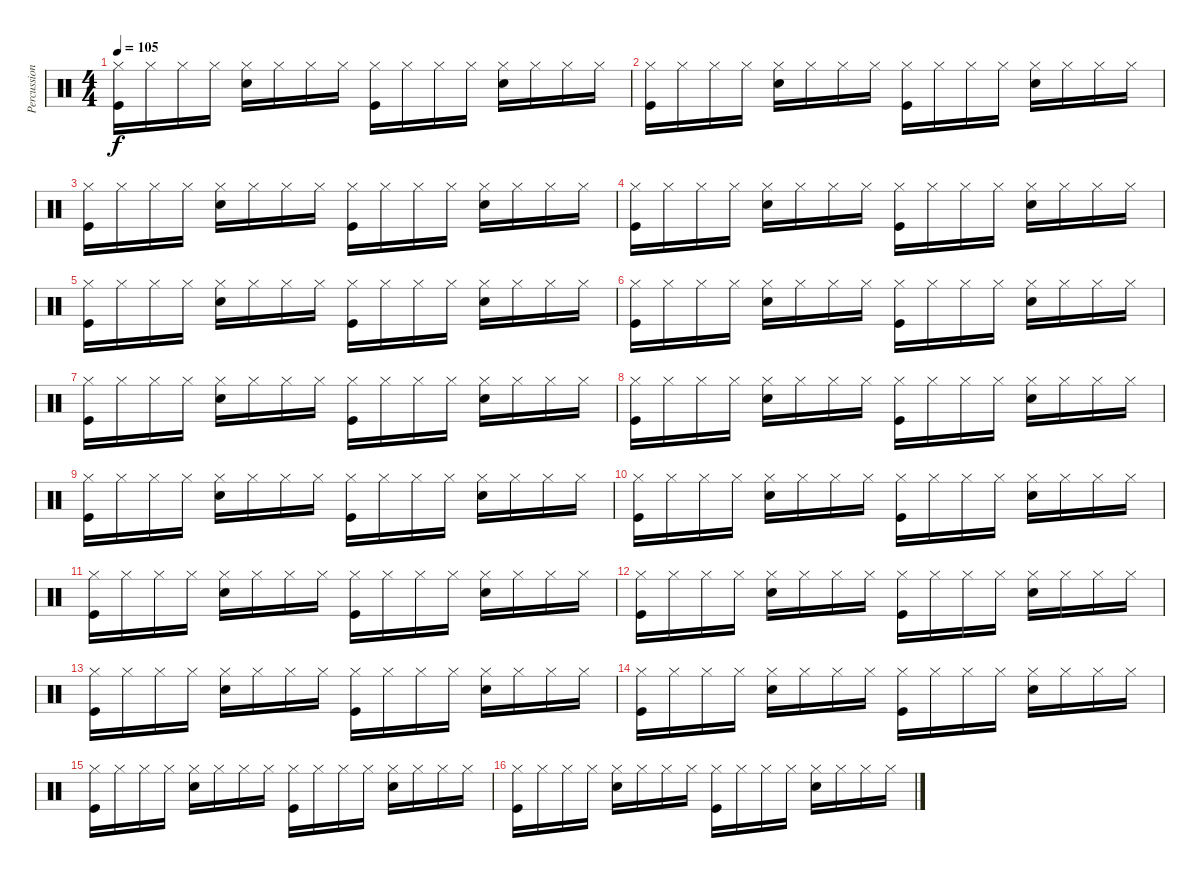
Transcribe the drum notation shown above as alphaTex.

\track ("Percussion" "Percussion") {instrument percussion}
\staff {score}
\articulation defaults
\ts (4 4)
\tempo 105
\clef neutral
\ks c
("Hi-Hat (closed)" "Kick (hit)").16{dy f} "Hi-Hat (closed)".16 "Hi-Hat (closed)".16 "Hi-Hat (closed)".16 ("Hi-Hat (closed)" "Snare (hit) 2").16 "Hi-Hat (closed)".16 "Hi-Hat (closed)".16 "Hi-Hat (closed)".16 ("Hi-Hat (closed)" "Kick (hit)").16 "Hi-Hat (closed)".16 "Hi-Hat (closed)".16 "Hi-Hat (closed)".16 ("Hi-Hat (closed)" "Snare (hit) 2").16 "Hi-Hat (closed)".16 "Hi-Hat (closed)".16 "Hi-Hat (closed)".16 |
("Hi-Hat (closed)" "Kick (hit)").16 "Hi-Hat (closed)".16 "Hi-Hat (closed)".16 "Hi-Hat (closed)".16 ("Hi-Hat (closed)" "Snare (hit) 2").16 "Hi-Hat (closed)".16 "Hi-Hat (closed)".16 "Hi-Hat (closed)".16 ("Hi-Hat (closed)" "Kick (hit)").16 "Hi-Hat (closed)".16 "Hi-Hat (closed)".16 "Hi-Hat (closed)".16 ("Hi-Hat (closed)" "Snare (hit) 2").16 "Hi-Hat (closed)".16 "Hi-Hat (closed)".16 "Hi-Hat (closed)".16 |
("Hi-Hat (closed)" "Kick (hit)").16 "Hi-Hat (closed)".16 "Hi-Hat (closed)".16 "Hi-Hat (closed)".16 ("Hi-Hat (closed)" "Snare (hit) 2").16 "Hi-Hat (closed)".16 "Hi-Hat (closed)".16 "Hi-Hat (closed)".16 ("Hi-Hat (closed)" "Kick (hit)").16 "Hi-Hat (closed)".16 "Hi-Hat (closed)".16 "Hi-Hat (closed)".16 ("Hi-Hat (closed)" "Snare (hit) 2").16 "Hi-Hat (closed)".16 "Hi-Hat (closed)".16 "Hi-Hat (closed)".16 |
("Hi-Hat (closed)" "Kick (hit)").16 "Hi-Hat (closed)".16 "Hi-Hat (closed)".16 "Hi-Hat (closed)".16 ("Hi-Hat (closed)" "Snare (hit) 2").16 "Hi-Hat (closed)".16 "Hi-Hat (closed)".16 "Hi-Hat (closed)".16 ("Hi-Hat (closed)" "Kick (hit)").16 "Hi-Hat (closed)".16 "Hi-Hat (closed)".16 "Hi-Hat (closed)".16 ("Hi-Hat (closed)" "Snare (hit) 2").16 "Hi-Hat (closed)".16 "Hi-Hat (closed)".16 "Hi-Hat (closed)".16 |
("Hi-Hat (closed)" "Kick (hit)").16 "Hi-Hat (closed)".16 "Hi-Hat (closed)".16 "Hi-Hat (closed)".16 ("Hi-Hat (closed)" "Snare (hit) 2").16 "Hi-Hat (closed)".16 "Hi-Hat (closed)".16 "Hi-Hat (closed)".16 ("Hi-Hat (closed)" "Kick (hit)").16 "Hi-Hat (closed)".16 "Hi-Hat (closed)".16 "Hi-Hat (closed)".16 ("Hi-Hat (closed)" "Snare (hit) 2").16 "Hi-Hat (closed)".16 "Hi-Hat (closed)".16 "Hi-Hat (closed)".16 |
("Hi-Hat (closed)" "Kick (hit)").16 "Hi-Hat (closed)".16 "Hi-Hat (closed)".16 "Hi-Hat (closed)".16 ("Hi-Hat (closed)" "Snare (hit) 2").16 "Hi-Hat (closed)".16 "Hi-Hat (closed)".16 "Hi-Hat (closed)".16 ("Hi-Hat (closed)" "Kick (hit)").16 "Hi-Hat (closed)".16 "Hi-Hat (closed)".16 "Hi-Hat (closed)".16 ("Hi-Hat (closed)" "Snare (hit) 2").16 "Hi-Hat (closed)".16 "Hi-Hat (closed)".16 "Hi-Hat (closed)".16 |
("Hi-Hat (closed)" "Kick (hit)").16 "Hi-Hat (closed)".16 "Hi-Hat (closed)".16 "Hi-Hat (closed)".16 ("Hi-Hat (closed)" "Snare (hit) 2").16 "Hi-Hat (closed)".16 "Hi-Hat (closed)".16 "Hi-Hat (closed)".16 ("Hi-Hat (closed)" "Kick (hit)").16 "Hi-Hat (closed)".16 "Hi-Hat (closed)".16 "Hi-Hat (closed)".16 ("Hi-Hat (closed)" "Snare (hit) 2").16 "Hi-Hat (closed)".16 "Hi-Hat (closed)".16 "Hi-Hat (closed)".16 |
("Hi-Hat (closed)" "Kick (hit)").16 "Hi-Hat (closed)".16 "Hi-Hat (closed)".16 "Hi-Hat (closed)".16 ("Hi-Hat (closed)" "Snare (hit) 2").16 "Hi-Hat (closed)".16 "Hi-Hat (closed)".16 "Hi-Hat (closed)".16 ("Hi-Hat (closed)" "Kick (hit)").16 "Hi-Hat (closed)".16 "Hi-Hat (closed)".16 "Hi-Hat (closed)".16 ("Hi-Hat (closed)" "Snare (hit) 2").16 "Hi-Hat (closed)".16 "Hi-Hat (closed)".16 "Hi-Hat (closed)".16 |
("Hi-Hat (closed)" "Kick (hit)").16 "Hi-Hat (closed)".16 "Hi-Hat (closed)".16 "Hi-Hat (closed)".16 ("Hi-Hat (closed)" "Snare (hit) 2").16 "Hi-Hat (closed)".16 "Hi-Hat (closed)".16 "Hi-Hat (closed)".16 ("Hi-Hat (closed)" "Kick (hit)").16 "Hi-Hat (closed)".16 "Hi-Hat (closed)".16 "Hi-Hat (closed)".16 ("Hi-Hat (closed)" "Snare (hit) 2").16 "Hi-Hat (closed)".16 "Hi-Hat (closed)".16 "Hi-Hat (closed)".16 |
("Hi-Hat (closed)" "Kick (hit)").16 "Hi-Hat (closed)".16 "Hi-Hat (closed)".16 "Hi-Hat (closed)".16 ("Hi-Hat (closed)" "Snare (hit) 2").16 "Hi-Hat (closed)".16 "Hi-Hat (closed)".16 "Hi-Hat (closed)".16 ("Hi-Hat (closed)" "Kick (hit)").16 "Hi-Hat (closed)".16 "Hi-Hat (closed)".16 "Hi-Hat (closed)".16 ("Hi-Hat (closed)" "Snare (hit) 2").16 "Hi-Hat (closed)".16 "Hi-Hat (closed)".16 "Hi-Hat (closed)".16 |
("Hi-Hat (closed)" "Kick (hit)").16 "Hi-Hat (closed)".16 "Hi-Hat (closed)".16 "Hi-Hat (closed)".16 ("Hi-Hat (closed)" "Snare (hit) 2").16 "Hi-Hat (closed)".16 "Hi-Hat (closed)".16 "Hi-Hat (closed)".16 ("Hi-Hat (closed)" "Kick (hit)").16 "Hi-Hat (closed)".16 "Hi-Hat (closed)".16 "Hi-Hat (closed)".16 ("Hi-Hat (closed)" "Snare (hit) 2").16 "Hi-Hat (closed)".16 "Hi-Hat (closed)".16 "Hi-Hat (closed)".16 |
("Hi-Hat (closed)" "Kick (hit)").16 "Hi-Hat (closed)".16 "Hi-Hat (closed)".16 "Hi-Hat (closed)".16 ("Hi-Hat (closed)" "Snare (hit) 2").16 "Hi-Hat (closed)".16 "Hi-Hat (closed)".16 "Hi-Hat (closed)".16 ("Hi-Hat (closed)" "Kick (hit)").16 "Hi-Hat (closed)".16 "Hi-Hat (closed)".16 "Hi-Hat (closed)".16 ("Hi-Hat (closed)" "Snare (hit) 2").16 "Hi-Hat (closed)".16 "Hi-Hat (closed)".16 "Hi-Hat (closed)".16 |
("Hi-Hat (closed)" "Kick (hit)").16 "Hi-Hat (closed)".16 "Hi-Hat (closed)".16 "Hi-Hat (closed)".16 ("Hi-Hat (closed)" "Snare (hit) 2").16 "Hi-Hat (closed)".16 "Hi-Hat (closed)".16 "Hi-Hat (closed)".16 ("Hi-Hat (closed)" "Kick (hit)").16 "Hi-Hat (closed)".16 "Hi-Hat (closed)".16 "Hi-Hat (closed)".16 ("Hi-Hat (closed)" "Snare (hit) 2").16 "Hi-Hat (closed)".16 "Hi-Hat (closed)".16 "Hi-Hat (closed)".16 |
("Hi-Hat (closed)" "Kick (hit)").16 "Hi-Hat (closed)".16 "Hi-Hat (closed)".16 "Hi-Hat (closed)".16 ("Hi-Hat (closed)" "Snare (hit) 2").16 "Hi-Hat (closed)".16 "Hi-Hat (closed)".16 "Hi-Hat (closed)".16 ("Hi-Hat (closed)" "Kick (hit)").16 "Hi-Hat (closed)".16 "Hi-Hat (closed)".16 "Hi-Hat (closed)".16 ("Hi-Hat (closed)" "Snare (hit) 2").16 "Hi-Hat (closed)".16 "Hi-Hat (closed)".16 "Hi-Hat (closed)".16 |
("Hi-Hat (closed)" "Kick (hit)").16 "Hi-Hat (closed)".16 "Hi-Hat (closed)".16 "Hi-Hat (closed)".16 ("Hi-Hat (closed)" "Snare (hit) 2").16 "Hi-Hat (closed)".16 "Hi-Hat (closed)".16 "Hi-Hat (closed)".16 ("Hi-Hat (closed)" "Kick (hit)").16 "Hi-Hat (closed)".16 "Hi-Hat (closed)".16 "Hi-Hat (closed)".16 ("Hi-Hat (closed)" "Snare (hit) 2").16 "Hi-Hat (closed)".16 "Hi-Hat (closed)".16 "Hi-Hat (closed)".16 |
("Hi-Hat (closed)" "Kick (hit)").16 "Hi-Hat (closed)".16 "Hi-Hat (closed)".16 "Hi-Hat (closed)".16 ("Hi-Hat (closed)" "Snare (hit) 2").16 "Hi-Hat (closed)".16 "Hi-Hat (closed)".16 "Hi-Hat (closed)".16 ("Hi-Hat (closed)" "Kick (hit)").16 "Hi-Hat (closed)".16 "Hi-Hat (closed)".16 "Hi-Hat (closed)".16 ("Hi-Hat (closed)" "Snare (hit) 2").16 "Hi-Hat (closed)".16 "Hi-Hat (closed)".16 "Hi-Hat (closed)".16
